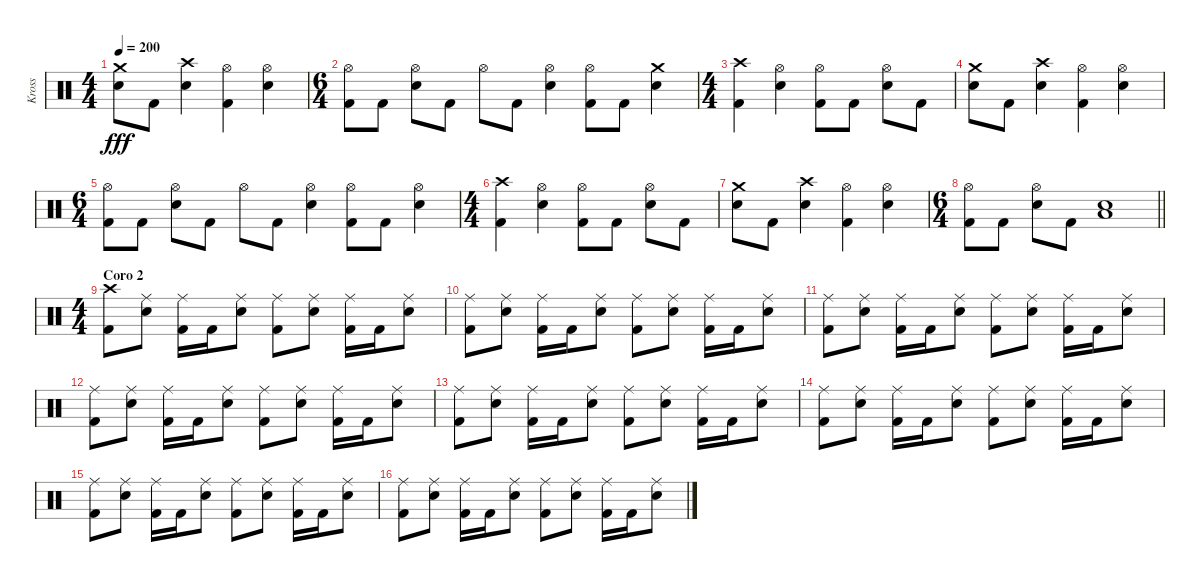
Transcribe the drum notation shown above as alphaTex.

\track ("Kross" "Kross") {instrument percussion}
\staff {score}
\articulation defaults
\ts (4 4)
\tempo 200
\clef neutral
\ks c
("Crash medium (hit)" "Electric Snare (hit)").8{dy fff} "Kick (hit) 2".8 ("Crash high (hit)" "Electric Snare (hit)").4 ("Hi-Hat (open)" "Kick (hit) 2").4 ("Hi-Hat (open)" "Electric Snare (hit)").4 |
\ts (6 4)
("Hi-Hat (open)" "Kick (hit) 2").8 "Kick (hit) 2".8 ("Hi-Hat (open)" "Electric Snare (hit)").8 "Kick (hit) 2".8 "Hi-Hat (open)".8 "Kick (hit) 2".8 ("Hi-Hat (open)" "Electric Snare (hit)").4 ("Hi-Hat (open)" "Kick (hit) 2").8 "Kick (hit) 2".8 ("Crash medium (hit)" "Electric Snare (hit)").4 |
\ts (4 4)
("Crash high (hit)" "Kick (hit) 2").4 ("Hi-Hat (open)" "Electric Snare (hit)").4 ("Hi-Hat (open)" "Kick (hit) 2").8 "Kick (hit) 2".8 ("Hi-Hat (open)" "Electric Snare (hit)").8 "Kick (hit) 2".8 |
("Crash medium (hit)" "Electric Snare (hit)").8 "Kick (hit) 2".8 ("Crash high (hit)" "Electric Snare (hit)").4 ("Hi-Hat (open)" "Kick (hit) 2").4 ("Hi-Hat (open)" "Electric Snare (hit)").4 |
\ts (6 4)
("Hi-Hat (open)" "Kick (hit) 2").8 "Kick (hit) 2".8 ("Hi-Hat (open)" "Electric Snare (hit)").8 "Kick (hit) 2".8 "Hi-Hat (open)".8 "Kick (hit) 2".8 ("Hi-Hat (open)" "Electric Snare (hit)").4 ("Hi-Hat (open)" "Kick (hit) 2").8 "Kick (hit) 2".8 ("Hi-Hat (open)" "Electric Snare (hit)").4 |
\ts (4 4)
("Crash high (hit)" "Kick (hit) 2").4 ("Hi-Hat (open)" "Electric Snare (hit)").4 ("Hi-Hat (open)" "Kick (hit) 2").8 "Kick (hit) 2".8 ("Hi-Hat (open)" "Electric Snare (hit)").8 "Kick (hit) 2".8 |
("Crash medium (hit)" "Electric Snare (hit)").8 "Kick (hit) 2".8 ("Crash high (hit)" "Electric Snare (hit)").4 ("Hi-Hat (open)" "Kick (hit) 2").4 ("Hi-Hat (open)" "Electric Snare (hit)").4 |
\ts (6 4)
\barLineRight lightlight
("Hi-Hat (open)" "Kick (hit) 2").8 "Kick (hit) 2".8 ("Hi-Hat (open)" "Electric Snare (hit)").8 "Kick (hit) 2".8 ("Low Tom (hit)" "Electric Snare (hit)").1 |
\ts (4 4)
\section ("" "Coro 2")
("Crash high (hit)" "Kick (hit) 2").8 ("Ride (middle)" "Electric Snare (hit)").8 ("Ride (middle)" "Kick (hit) 2").16 "Kick (hit) 2".16 ("Ride (middle)" "Electric Snare (hit)").8 ("Ride (middle)" "Kick (hit) 2").8 ("Ride (middle)" "Electric Snare (hit)").8 ("Ride (middle)" "Kick (hit) 2").16 "Kick (hit) 2".16 ("Ride (middle)" "Electric Snare (hit)").8 |
("Ride (middle)" "Kick (hit) 2").8 ("Ride (middle)" "Electric Snare (hit)").8 ("Ride (middle)" "Kick (hit) 2").16 "Kick (hit) 2".16 ("Ride (middle)" "Electric Snare (hit)").8 ("Ride (middle)" "Kick (hit) 2").8 ("Ride (middle)" "Electric Snare (hit)").8 ("Ride (middle)" "Kick (hit) 2").16 "Kick (hit) 2".16 ("Ride (middle)" "Electric Snare (hit)").8 |
("Ride (middle)" "Kick (hit) 2").8 ("Ride (middle)" "Electric Snare (hit)").8 ("Ride (middle)" "Kick (hit) 2").16 "Kick (hit) 2".16 ("Ride (middle)" "Electric Snare (hit)").8 ("Ride (middle)" "Kick (hit) 2").8 ("Ride (middle)" "Electric Snare (hit)").8 ("Ride (middle)" "Kick (hit) 2").16 "Kick (hit) 2".16 ("Ride (middle)" "Electric Snare (hit)").8 |
("Ride (middle)" "Kick (hit) 2").8 ("Ride (middle)" "Electric Snare (hit)").8 ("Ride (middle)" "Kick (hit) 2").16 "Kick (hit) 2".16 ("Ride (middle)" "Electric Snare (hit)").8 ("Ride (middle)" "Kick (hit) 2").8 ("Ride (middle)" "Electric Snare (hit)").8 ("Ride (middle)" "Kick (hit) 2").16 "Kick (hit) 2".16 ("Ride (middle)" "Electric Snare (hit)").8 |
("Ride (middle)" "Kick (hit) 2").8 ("Ride (middle)" "Electric Snare (hit)").8 ("Ride (middle)" "Kick (hit) 2").16 "Kick (hit) 2".16 ("Ride (middle)" "Electric Snare (hit)").8 ("Ride (middle)" "Kick (hit) 2").8 ("Ride (middle)" "Electric Snare (hit)").8 ("Ride (middle)" "Kick (hit) 2").16 "Kick (hit) 2".16 ("Ride (middle)" "Electric Snare (hit)").8 |
("Ride (middle)" "Kick (hit) 2").8 ("Ride (middle)" "Electric Snare (hit)").8 ("Ride (middle)" "Kick (hit) 2").16 "Kick (hit) 2".16 ("Ride (middle)" "Electric Snare (hit)").8 ("Ride (middle)" "Kick (hit) 2").8 ("Ride (middle)" "Electric Snare (hit)").8 ("Ride (middle)" "Kick (hit) 2").16 "Kick (hit) 2".16 ("Ride (middle)" "Electric Snare (hit)").8 |
("Ride (middle)" "Kick (hit) 2").8 ("Ride (middle)" "Electric Snare (hit)").8 ("Ride (middle)" "Kick (hit) 2").16 "Kick (hit) 2".16 ("Ride (middle)" "Electric Snare (hit)").8 ("Ride (middle)" "Kick (hit) 2").8 ("Ride (middle)" "Electric Snare (hit)").8 ("Ride (middle)" "Kick (hit) 2").16 "Kick (hit) 2".16 ("Ride (middle)" "Electric Snare (hit)").8 |
("Ride (middle)" "Kick (hit) 2").8 ("Ride (middle)" "Electric Snare (hit)").8 ("Ride (middle)" "Kick (hit) 2").16 "Kick (hit) 2".16 ("Ride (middle)" "Electric Snare (hit)").8 ("Ride (middle)" "Kick (hit) 2").8 ("Ride (middle)" "Electric Snare (hit)").8 ("Ride (middle)" "Kick (hit) 2").16 "Kick (hit) 2".16 ("Ride (middle)" "Electric Snare (hit)").8
